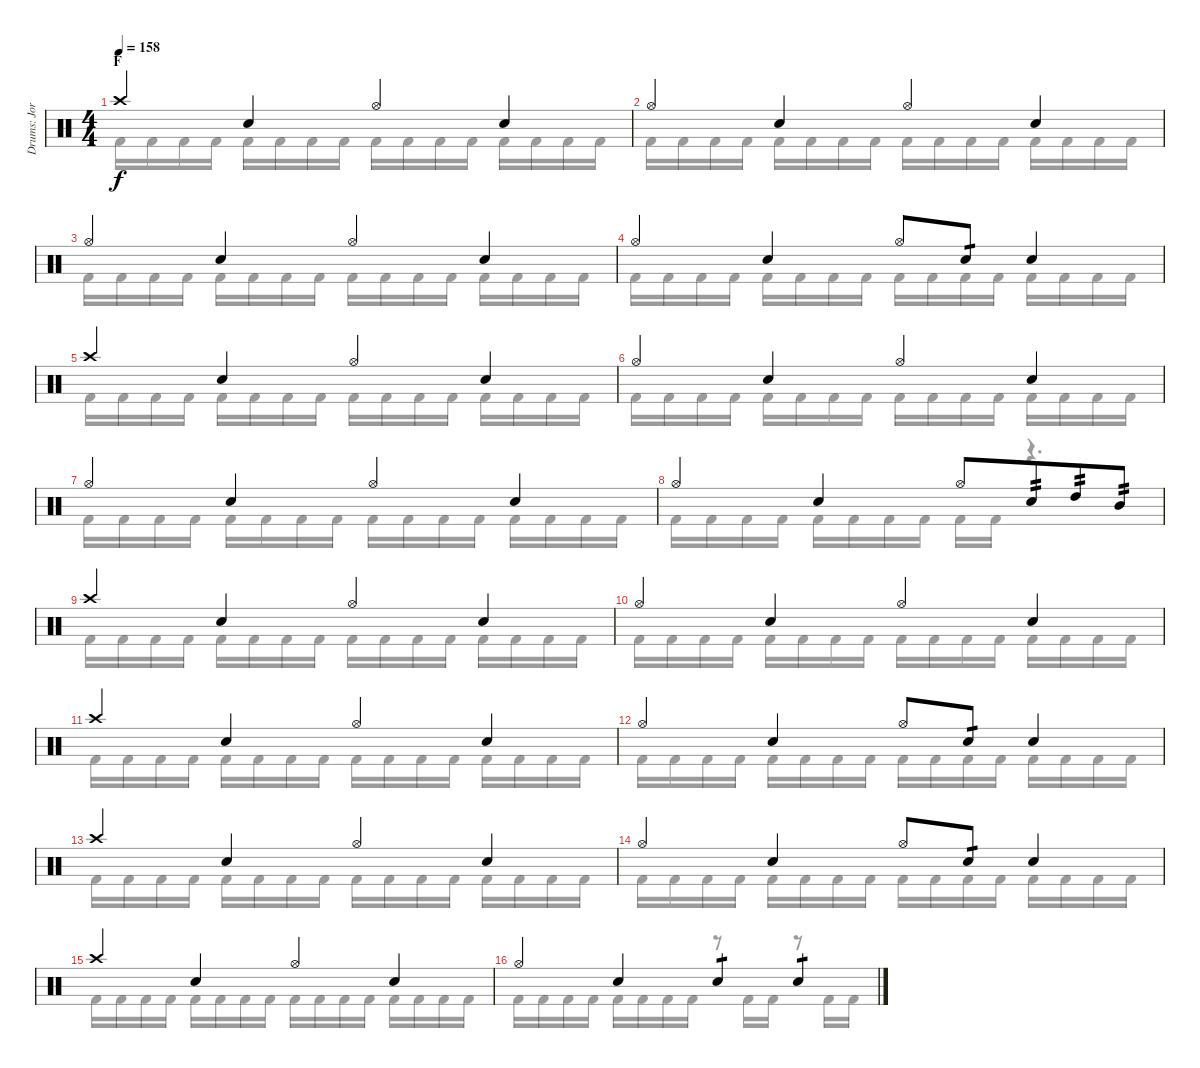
\track ("Drums: Jorg" "Drums: Jor") {instrument percussion}
\staff {score}
\articulation defaults
\voice
\ts (4 4)
\section ("" "F")
\tempo 158
\clef neutral
\ks c "Crash high (hit)".4{dy f} "Snare (hit) 2".4 "Hi-Hat (open)".4 "Snare (hit) 2".4
|
"Hi-Hat (open)".4 "Snare (hit) 2".4 "Hi-Hat (open)".4 "Snare (hit) 2".4 |
"Hi-Hat (open)".4 "Snare (hit) 2".4 "Hi-Hat (open)".4 "Snare (hit) 2".4 |
"Hi-Hat (open)".4 "Snare (hit) 2".4 "Hi-Hat (open)".8 "Snare (hit) 2".8{tp 1} "Snare (hit) 2".4 |
"Crash high (hit)".4 "Snare (hit) 2".4 "Hi-Hat (open)".4 "Snare (hit) 2".4 |
"Hi-Hat (open)".4 "Snare (hit) 2".4 "Hi-Hat (open)".4 "Snare (hit) 2".4 |
"Hi-Hat (open)".4 "Snare (hit) 2".4 "Hi-Hat (open)".4 "Snare (hit) 2".4 |
"Hi-Hat (open)".4 "Snare (hit) 2".4 "Hi-Hat (open)".8 "Snare (hit) 2".8{tp 2 beam merge} "High Tom (hit)".8{tp 2} "Mid Tom (hit)".8{tp 2} |
"Crash high (hit)".4 "Snare (hit) 2".4 "Hi-Hat (open)".4 "Snare (hit) 2".4 |
"Hi-Hat (open)".4 "Snare (hit) 2".4 "Hi-Hat (open)".4 "Snare (hit) 2".4 |
"Crash high (hit)".4 "Snare (hit) 2".4 "Hi-Hat (open)".4 "Snare (hit) 2".4 |
"Hi-Hat (open)".4 "Snare (hit) 2".4 "Hi-Hat (open)".8 "Snare (hit) 2".8{tp 1} "Snare (hit) 2".4 |
"Crash high (hit)".4 "Snare (hit) 2".4 "Hi-Hat (open)".4 "Snare (hit) 2".4 |
"Hi-Hat (open)".4 "Snare (hit) 2".4 "Hi-Hat (open)".8 "Snare (hit) 2".8{tp 1} "Snare (hit) 2".4 |
"Crash high (hit)".4 "Snare (hit) 2".4 "Hi-Hat (open)".4 "Snare (hit) 2".4 |
"Hi-Hat (open)".4 "Snare (hit) 2".4 "Snare (hit) 2".4{tp 1} "Snare (hit) 2".4{tp 1}
\voice
\clef neutral
\ottava regular
\simile none
\ks c "Kick (hit) 2".16{dy f} "Kick (hit) 2".16 "Kick (hit) 2".16 "Kick (hit) 2".16 "Kick (hit) 2".16 "Kick (hit) 2".16 "Kick (hit) 2".16 "Kick (hit) 2".16 "Kick (hit) 2".16 "Kick (hit) 2".16 "Kick (hit) 2".16 "Kick (hit) 2".16 "Kick (hit) 2".16 "Kick (hit) 2".16 "Kick (hit) 2".16 "Kick (hit) 2".16
|
"Kick (hit) 2".16 "Kick (hit) 2".16 "Kick (hit) 2".16 "Kick (hit) 2".16 "Kick (hit) 2".16 "Kick (hit) 2".16 "Kick (hit) 2".16 "Kick (hit) 2".16 "Kick (hit) 2".16 "Kick (hit) 2".16 "Kick (hit) 2".16 "Kick (hit) 2".16 "Kick (hit) 2".16 "Kick (hit) 2".16 "Kick (hit) 2".16 "Kick (hit) 2".16 |
"Kick (hit) 2".16 "Kick (hit) 2".16 "Kick (hit) 2".16 "Kick (hit) 2".16 "Kick (hit) 2".16 "Kick (hit) 2".16 "Kick (hit) 2".16 "Kick (hit) 2".16 "Kick (hit) 2".16 "Kick (hit) 2".16 "Kick (hit) 2".16 "Kick (hit) 2".16 "Kick (hit) 2".16 "Kick (hit) 2".16 "Kick (hit) 2".16 "Kick (hit) 2".16 |
"Kick (hit) 2".16 "Kick (hit) 2".16 "Kick (hit) 2".16 "Kick (hit) 2".16 "Kick (hit) 2".16 "Kick (hit) 2".16 "Kick (hit) 2".16 "Kick (hit) 2".16 "Kick (hit) 2".16 "Kick (hit) 2".16 "Kick (hit) 2".16 "Kick (hit) 2".16 "Kick (hit) 2".16 "Kick (hit) 2".16 "Kick (hit) 2".16 "Kick (hit) 2".16 |
"Kick (hit) 2".16 "Kick (hit) 2".16 "Kick (hit) 2".16 "Kick (hit) 2".16 "Kick (hit) 2".16 "Kick (hit) 2".16 "Kick (hit) 2".16 "Kick (hit) 2".16 "Kick (hit) 2".16 "Kick (hit) 2".16 "Kick (hit) 2".16 "Kick (hit) 2".16 "Kick (hit) 2".16 "Kick (hit) 2".16 "Kick (hit) 2".16 "Kick (hit) 2".16 |
"Kick (hit) 2".16 "Kick (hit) 2".16 "Kick (hit) 2".16 "Kick (hit) 2".16 "Kick (hit) 2".16 "Kick (hit) 2".16 "Kick (hit) 2".16 "Kick (hit) 2".16 "Kick (hit) 2".16 "Kick (hit) 2".16 "Kick (hit) 2".16 "Kick (hit) 2".16 "Kick (hit) 2".16 "Kick (hit) 2".16 "Kick (hit) 2".16 "Kick (hit) 2".16 |
"Kick (hit) 2".16 "Kick (hit) 2".16 "Kick (hit) 2".16 "Kick (hit) 2".16 "Kick (hit) 2".16 "Kick (hit) 2".16 "Kick (hit) 2".16 "Kick (hit) 2".16 "Kick (hit) 2".16 "Kick (hit) 2".16 "Kick (hit) 2".16 "Kick (hit) 2".16 "Kick (hit) 2".16 "Kick (hit) 2".16 "Kick (hit) 2".16 "Kick (hit) 2".16 |
"Kick (hit) 2".16 "Kick (hit) 2".16 "Kick (hit) 2".16 "Kick (hit) 2".16 "Kick (hit) 2".16 "Kick (hit) 2".16 "Kick (hit) 2".16 "Kick (hit) 2".16 "Kick (hit) 2".16 "Kick (hit) 2".16 r.4{d} |
"Kick (hit) 2".16 "Kick (hit) 2".16 "Kick (hit) 2".16 "Kick (hit) 2".16 "Kick (hit) 2".16 "Kick (hit) 2".16 "Kick (hit) 2".16 "Kick (hit) 2".16 "Kick (hit) 2".16 "Kick (hit) 2".16 "Kick (hit) 2".16 "Kick (hit) 2".16 "Kick (hit) 2".16 "Kick (hit) 2".16 "Kick (hit) 2".16 "Kick (hit) 2".16 |
"Kick (hit) 2".16 "Kick (hit) 2".16 "Kick (hit) 2".16 "Kick (hit) 2".16 "Kick (hit) 2".16 "Kick (hit) 2".16 "Kick (hit) 2".16 "Kick (hit) 2".16 "Kick (hit) 2".16 "Kick (hit) 2".16 "Kick (hit) 2".16 "Kick (hit) 2".16 "Kick (hit) 2".16 "Kick (hit) 2".16 "Kick (hit) 2".16 "Kick (hit) 2".16 |
"Kick (hit) 2".16 "Kick (hit) 2".16 "Kick (hit) 2".16 "Kick (hit) 2".16 "Kick (hit) 2".16 "Kick (hit) 2".16 "Kick (hit) 2".16 "Kick (hit) 2".16 "Kick (hit) 2".16 "Kick (hit) 2".16 "Kick (hit) 2".16 "Kick (hit) 2".16 "Kick (hit) 2".16 "Kick (hit) 2".16 "Kick (hit) 2".16 "Kick (hit) 2".16 |
"Kick (hit) 2".16 "Kick (hit) 2".16 "Kick (hit) 2".16 "Kick (hit) 2".16 "Kick (hit) 2".16 "Kick (hit) 2".16 "Kick (hit) 2".16 "Kick (hit) 2".16 "Kick (hit) 2".16 "Kick (hit) 2".16 "Kick (hit) 2".16 "Kick (hit) 2".16 "Kick (hit) 2".16 "Kick (hit) 2".16 "Kick (hit) 2".16 "Kick (hit) 2".16 |
"Kick (hit) 2".16 "Kick (hit) 2".16 "Kick (hit) 2".16 "Kick (hit) 2".16 "Kick (hit) 2".16 "Kick (hit) 2".16 "Kick (hit) 2".16 "Kick (hit) 2".16 "Kick (hit) 2".16 "Kick (hit) 2".16 "Kick (hit) 2".16 "Kick (hit) 2".16 "Kick (hit) 2".16 "Kick (hit) 2".16 "Kick (hit) 2".16 "Kick (hit) 2".16 |
"Kick (hit) 2".16 "Kick (hit) 2".16 "Kick (hit) 2".16 "Kick (hit) 2".16 "Kick (hit) 2".16 "Kick (hit) 2".16 "Kick (hit) 2".16 "Kick (hit) 2".16 "Kick (hit) 2".16 "Kick (hit) 2".16 "Kick (hit) 2".16 "Kick (hit) 2".16 "Kick (hit) 2".16 "Kick (hit) 2".16 "Kick (hit) 2".16 "Kick (hit) 2".16 |
"Kick (hit) 2".16 "Kick (hit) 2".16 "Kick (hit) 2".16 "Kick (hit) 2".16 "Kick (hit) 2".16 "Kick (hit) 2".16 "Kick (hit) 2".16 "Kick (hit) 2".16 "Kick (hit) 2".16 "Kick (hit) 2".16 "Kick (hit) 2".16 "Kick (hit) 2".16 "Kick (hit) 2".16 "Kick (hit) 2".16 "Kick (hit) 2".16 "Kick (hit) 2".16 |
"Kick (hit) 2".16 "Kick (hit) 2".16 "Kick (hit) 2".16 "Kick (hit) 2".16 "Kick (hit) 2".16 "Kick (hit) 2".16 "Kick (hit) 2".16 "Kick (hit) 2".16 r.8 "Kick (hit) 2".16 "Kick (hit) 2".16 r.8 "Kick (hit) 2".16 "Kick (hit) 2".16
